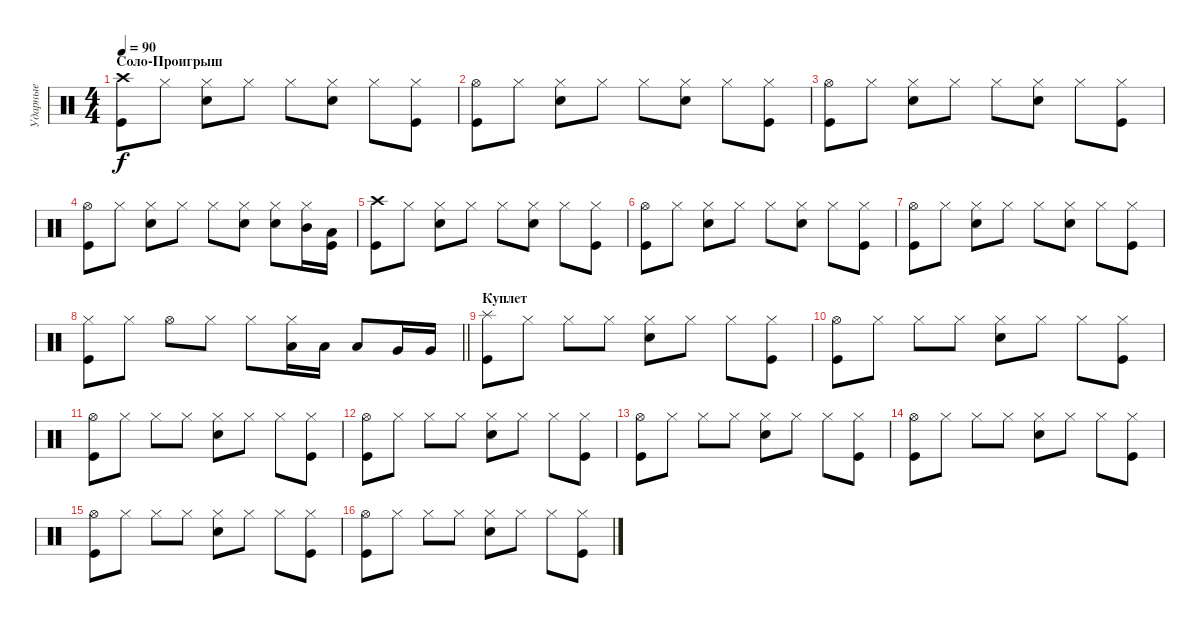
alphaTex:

\track ("Ударные" "Ударные") {instrument percussion}
\staff {score}
\articulation defaults
\ts (4 4)
\section ("" "Соло-Проигрыш")
\tempo 90
\clef neutral
\ks c
("Crash high (hit)" "Kick (hit)").8{dy f} "Hi-Hat (closed)".8 ("Hi-Hat (closed)" "Electric Snare (hit)").8 "Hi-Hat (closed)".8 "Hi-Hat (closed)".8 ("Hi-Hat (closed)" "Electric Snare (hit)").8 "Hi-Hat (closed)".8 ("Hi-Hat (closed)" "Kick (hit)").8 |
("Hi-Hat (open)" "Kick (hit)").8 "Hi-Hat (closed)".8 ("Hi-Hat (closed)" "Electric Snare (hit)").8 "Hi-Hat (closed)".8 "Hi-Hat (closed)".8 ("Hi-Hat (closed)" "Electric Snare (hit)").8 "Hi-Hat (closed)".8 ("Hi-Hat (closed)" "Kick (hit)").8 |
("Hi-Hat (open)" "Kick (hit)").8 "Hi-Hat (closed)".8 ("Hi-Hat (closed)" "Electric Snare (hit)").8 "Hi-Hat (closed)".8 "Hi-Hat (closed)".8 ("Hi-Hat (closed)" "Electric Snare (hit)").8 "Hi-Hat (closed)".8 ("Hi-Hat (closed)" "Kick (hit)").8 |
("Hi-Hat (open)" "Kick (hit)").8 "Hi-Hat (closed)".8 ("Hi-Hat (closed)" "Electric Snare (hit)").8 "Hi-Hat (closed)".8 "Hi-Hat (closed)".8 ("Hi-Hat (closed)" "Electric Snare (hit)").8 ("Hi-Hat (closed)" "Electric Snare (hit)").8 ("Hi-Hat (closed)" "Mid Tom (hit)").16 ("Low Tom (hit)" "Kick (hit)").16 |
("Crash high (hit)" "Kick (hit)").8 "Hi-Hat (closed)".8 ("Hi-Hat (closed)" "Electric Snare (hit)").8 "Hi-Hat (closed)".8 "Hi-Hat (closed)".8 ("Hi-Hat (closed)" "Electric Snare (hit)").8 "Hi-Hat (closed)".8 ("Hi-Hat (closed)" "Kick (hit)").8 |
("Hi-Hat (open)" "Kick (hit)").8 "Hi-Hat (closed)".8 ("Hi-Hat (closed)" "Electric Snare (hit)").8 "Hi-Hat (closed)".8 "Hi-Hat (closed)".8 ("Hi-Hat (closed)" "Electric Snare (hit)").8 "Hi-Hat (closed)".8 ("Hi-Hat (closed)" "Kick (hit)").8 |
("Hi-Hat (open)" "Kick (hit)").8 "Hi-Hat (closed)".8 ("Hi-Hat (closed)" "Electric Snare (hit)").8 "Hi-Hat (closed)".8 "Hi-Hat (closed)".8 ("Hi-Hat (closed)" "Electric Snare (hit)").8 "Hi-Hat (closed)".8 ("Hi-Hat (closed)" "Kick (hit)").8 |
\barLineRight lightlight
("Hi-Hat (closed)" "Kick (hit)").8 "Hi-Hat (closed)".8 "Hi-Hat (open)".8 "Hi-Hat (closed)".8 "Hi-Hat (closed)".8 ("Hi-Hat (closed)" "Low Tom (hit)").16 "Low Tom (hit)".16 "Low Tom (hit)".8 "Very Low Tom (hit)".16 "Very Low Tom (hit)".16 |
\section ("" "Куплет")
("Kick (hit)" "Splash (hit)").8 "Hi-Hat (closed)".8 "Hi-Hat (closed)".8 "Hi-Hat (closed)".8 ("Hi-Hat (closed)" "Electric Snare (hit)").8 "Hi-Hat (closed)".8 "Hi-Hat (closed)".8 ("Hi-Hat (closed)" "Kick (hit)").8 |
("Hi-Hat (open)" "Kick (hit)").8 "Hi-Hat (closed)".8 "Hi-Hat (closed)".8 "Hi-Hat (closed)".8 ("Hi-Hat (closed)" "Electric Snare (hit)").8 "Hi-Hat (closed)".8 "Hi-Hat (closed)".8 ("Hi-Hat (closed)" "Kick (hit)").8 |
("Hi-Hat (open)" "Kick (hit)").8 "Hi-Hat (closed)".8 "Hi-Hat (closed)".8 "Hi-Hat (closed)".8 ("Hi-Hat (closed)" "Electric Snare (hit)").8 "Hi-Hat (closed)".8 "Hi-Hat (closed)".8 ("Hi-Hat (closed)" "Kick (hit)").8 |
("Hi-Hat (open)" "Kick (hit)").8 "Hi-Hat (closed)".8 "Hi-Hat (closed)".8 "Hi-Hat (closed)".8 ("Hi-Hat (closed)" "Electric Snare (hit)").8 "Hi-Hat (closed)".8 "Hi-Hat (closed)".8 ("Hi-Hat (closed)" "Kick (hit)").8 |
("Hi-Hat (open)" "Kick (hit)").8 "Hi-Hat (closed)".8 "Hi-Hat (closed)".8 "Hi-Hat (closed)".8 ("Hi-Hat (closed)" "Electric Snare (hit)").8 "Hi-Hat (closed)".8 "Hi-Hat (closed)".8 ("Hi-Hat (closed)" "Kick (hit)").8 |
("Hi-Hat (open)" "Kick (hit)").8 "Hi-Hat (closed)".8 "Hi-Hat (closed)".8 "Hi-Hat (closed)".8 ("Hi-Hat (closed)" "Electric Snare (hit)").8 "Hi-Hat (closed)".8 "Hi-Hat (closed)".8 ("Hi-Hat (closed)" "Kick (hit)").8 |
("Hi-Hat (open)" "Kick (hit)").8 "Hi-Hat (closed)".8 "Hi-Hat (closed)".8 "Hi-Hat (closed)".8 ("Hi-Hat (closed)" "Electric Snare (hit)").8 "Hi-Hat (closed)".8 "Hi-Hat (closed)".8 ("Hi-Hat (closed)" "Kick (hit)").8 |
("Hi-Hat (open)" "Kick (hit)").8 "Hi-Hat (closed)".8 "Hi-Hat (closed)".8 "Hi-Hat (closed)".8 ("Hi-Hat (closed)" "Electric Snare (hit)").8 "Hi-Hat (closed)".8 "Hi-Hat (closed)".8 ("Hi-Hat (closed)" "Kick (hit)").8
